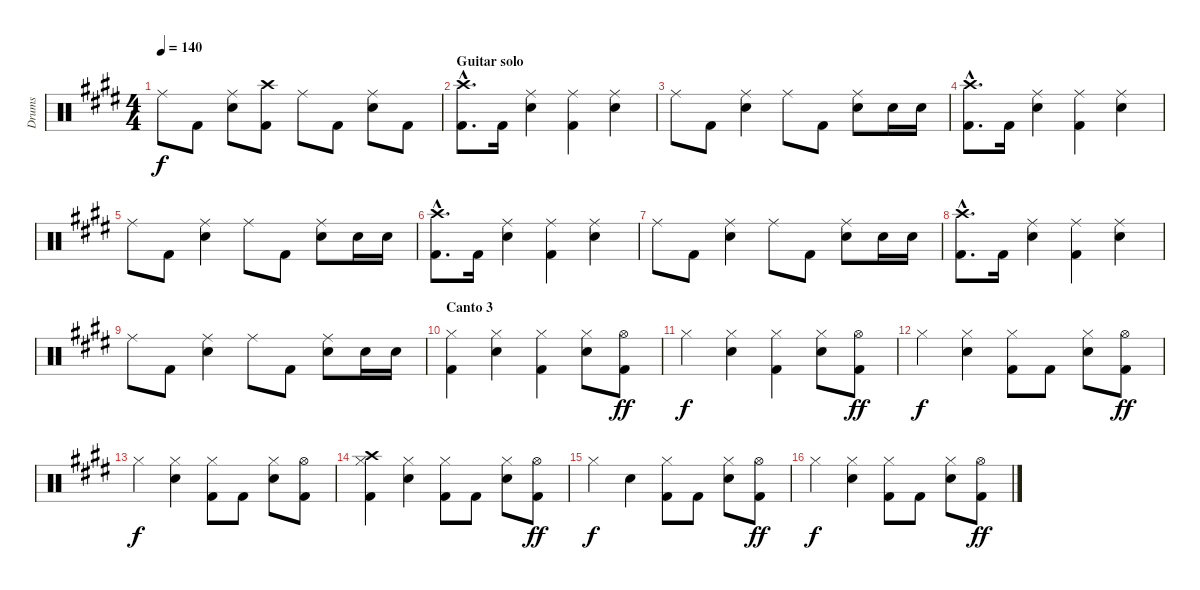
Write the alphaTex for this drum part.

\track ("Drums" "Drums") {instrument percussion}
\staff {score}
\articulation defaults
\ts (4 4)
\tempo 140
\clef neutral
\ks c#minor "Ride (middle)".8{dy f} "Kick (hit) 2".8
("Ride (middle)" "Snare (hit) 2").8 ("Crash high (hit)" "Kick (hit) 2").8 "Ride (middle)".8 "Kick (hit) 2".8 ("Ride (middle)" "Snare (hit) 2").8 "Kick (hit) 2".8 |
\section ("" "Guitar solo")
("Crash high (hit)" "Kick (hit) 2"{hac}).8{d} "Kick (hit) 2".16 ("Ride (middle)" "Snare (hit) 2").4 ("Ride (middle)" "Kick (hit) 2").4 ("Ride (middle)" "Snare (hit) 2").4 |
"Ride (middle)".8 "Kick (hit) 2".8 ("Ride (middle)" "Snare (hit) 2").4 "Ride (middle)".8 "Kick (hit) 2".8 ("Ride (middle)" "Snare (hit) 2").8 "Snare (hit) 2".16 "Snare (hit) 2".16 |
("Crash high (hit)" "Kick (hit) 2"{hac}).8{d} "Kick (hit) 2".16 ("Ride (middle)" "Snare (hit) 2").4 ("Ride (middle)" "Kick (hit) 2").4 ("Ride (middle)" "Snare (hit) 2").4 |
"Ride (middle)".8 "Kick (hit) 2".8 ("Ride (middle)" "Snare (hit) 2").4 "Ride (middle)".8 "Kick (hit) 2".8 ("Ride (middle)" "Snare (hit) 2").8 "Snare (hit) 2".16 "Snare (hit) 2".16 |
("Crash high (hit)"{hac} "Kick (hit) 2"{hac}).8{d} "Kick (hit) 2".16 ("Ride (middle)" "Snare (hit) 2").4 ("Ride (middle)" "Kick (hit) 2").4 ("Ride (middle)" "Snare (hit) 2").4 |
"Ride (middle)".8 "Kick (hit) 2".8 ("Ride (middle)" "Snare (hit) 2").4 "Ride (middle)".8 "Kick (hit) 2".8 ("Ride (middle)" "Snare (hit) 2").8 "Snare (hit) 2".16 "Snare (hit) 2".16 |
("Crash high (hit)" "Kick (hit) 2"{hac}).8{d} "Kick (hit) 2".16 ("Ride (middle)" "Snare (hit) 2").4 ("Ride (middle)" "Kick (hit) 2").4 ("Ride (middle)" "Snare (hit) 2").4 |
"Ride (middle)".8 "Kick (hit) 2".8 ("Ride (middle)" "Snare (hit) 2").4 "Ride (middle)".8 "Kick (hit) 2".8 ("Ride (middle)" "Snare (hit) 2").8 "Snare (hit) 2".16 "Snare (hit) 2".16 |
\section ("" "Canto 3")
("Hi-Hat (closed)" "Kick (hit) 2").4 ("Hi-Hat (closed)" "Snare (hit) 2").4 ("Hi-Hat (closed)" "Kick (hit) 2").4 ("Hi-Hat (closed)" "Snare (hit) 2").8 ("Hi-Hat (open)" "Kick (hit) 2").8{dy ff} |
"Hi-Hat (closed)".4{dy f} ("Hi-Hat (closed)" "Snare (hit) 2").4 ("Hi-Hat (closed)" "Kick (hit) 2").4 ("Hi-Hat (closed)" "Snare (hit) 2").8 ("Hi-Hat (open)" "Kick (hit) 2").8{dy ff} |
"Hi-Hat (closed)".4{dy f} ("Hi-Hat (closed)" "Snare (hit) 2").4 ("Hi-Hat (closed)" "Kick (hit) 2").8 "Kick (hit) 2".8 ("Hi-Hat (closed)" "Snare (hit) 2").8 ("Hi-Hat (open)" "Kick (hit) 2").8{dy ff} |
"Hi-Hat (closed)".4{dy f} ("Hi-Hat (closed)" "Snare (hit) 2").4 ("Hi-Hat (closed)" "Kick (hit) 2").8 "Kick (hit) 2".8 ("Hi-Hat (closed)" "Snare (hit) 2").8 ("Hi-Hat (open)" "Kick (hit) 2").8 |
("Hi-Hat (closed)" "Crash high (hit)" "Kick (hit) 2").4 ("Hi-Hat (closed)" "Snare (hit) 2").4 ("Hi-Hat (closed)" "Kick (hit) 2").8 "Kick (hit) 2".8 ("Hi-Hat (closed)" "Snare (hit) 2").8 ("Hi-Hat (open)" "Kick (hit) 2").8{dy ff} |
"Hi-Hat (closed)".4{dy f} "Snare (hit) 2".4 ("Hi-Hat (closed)" "Kick (hit) 2").8 "Kick (hit) 2".8 ("Hi-Hat (closed)" "Snare (hit) 2").8 ("Hi-Hat (open)" "Kick (hit) 2").8{dy ff} |
"Hi-Hat (closed)".4{dy f} ("Hi-Hat (closed)" "Snare (hit) 2").4 ("Hi-Hat (closed)" "Kick (hit) 2").8 "Kick (hit) 2".8 ("Hi-Hat (closed)" "Snare (hit) 2").8 ("Hi-Hat (open)" "Kick (hit) 2").8{dy ff}
